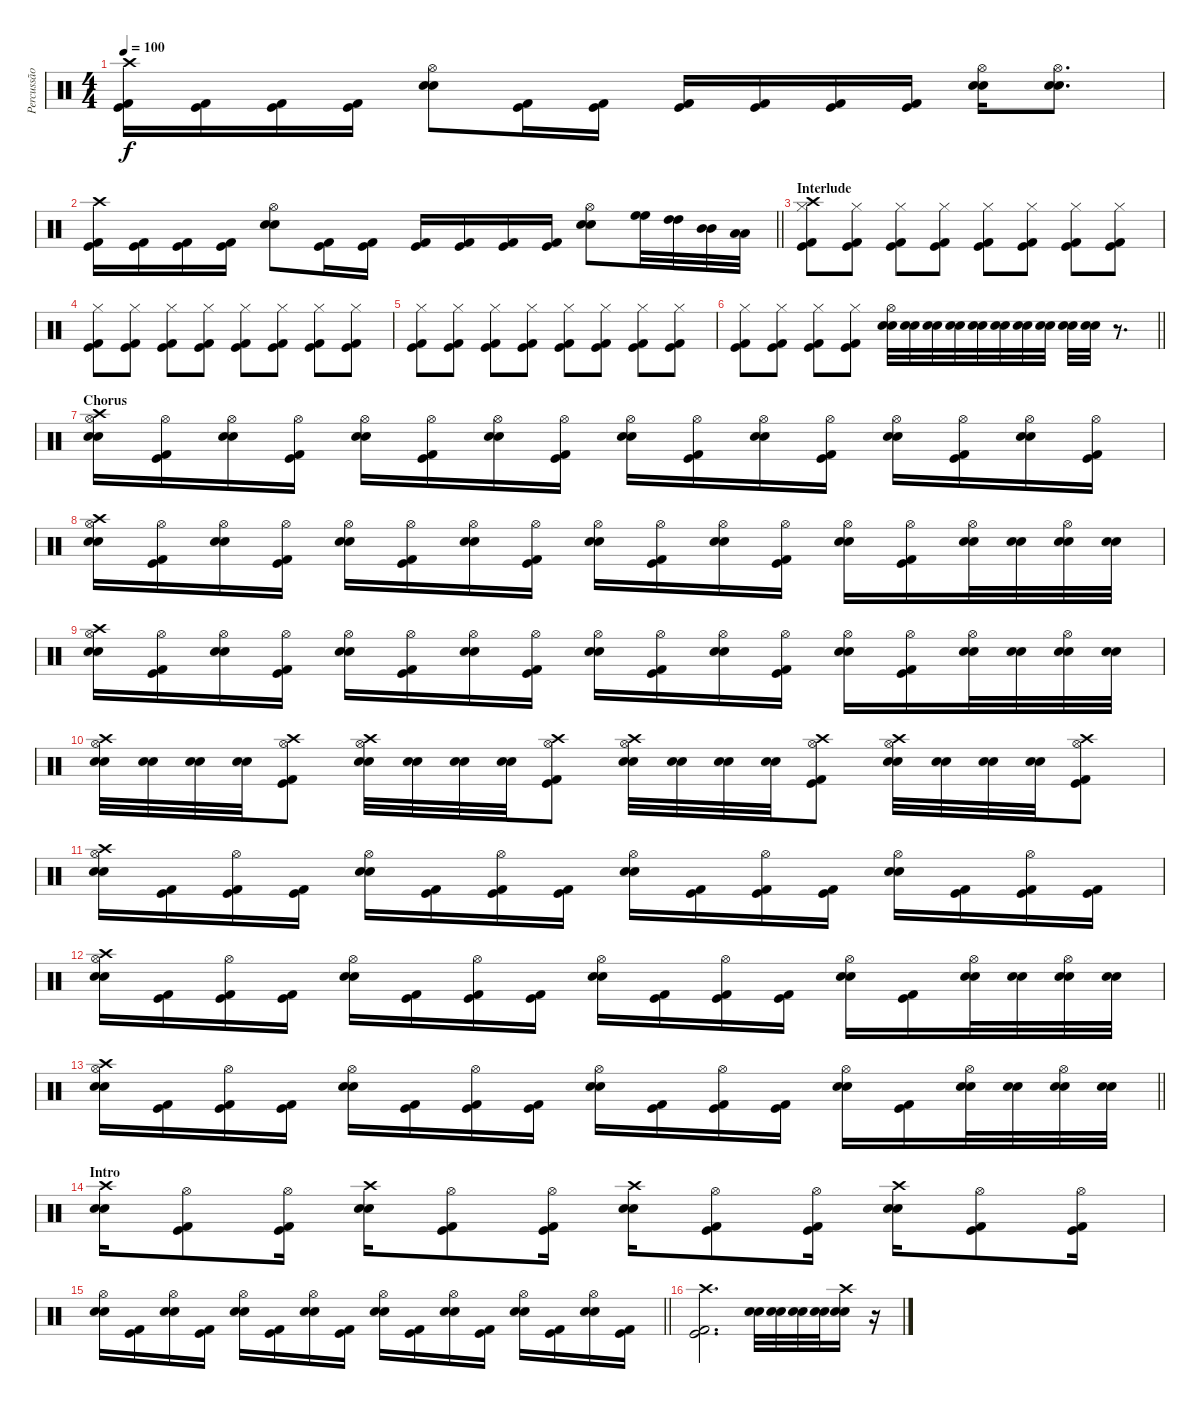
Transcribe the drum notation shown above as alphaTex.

\track ("Percussão" "Percussão") {instrument percussion}
\staff {score}
\articulation defaults
\ts (4 4)
\tempo 100
\clef neutral
\ks c
("Crash high (hit)" "Kick (hit) 2" "Kick (hit)").16{dy f} ("Kick (hit) 2" "Kick (hit)").16 ("Kick (hit) 2" "Kick (hit)").16 ("Kick (hit) 2" "Kick (hit)").16 ("Hi-Hat (open)" "Electric Snare (hit)" "Snare (hit) 2").8 ("Kick (hit) 2" "Kick (hit)").16 ("Kick (hit) 2" "Kick (hit)").16 ("Kick (hit) 2" "Kick (hit)").16 ("Kick (hit) 2" "Kick (hit)").16 ("Kick (hit) 2" "Kick (hit)").16 ("Kick (hit) 2" "Kick (hit)").16 ("Hi-Hat (open)" "Electric Snare (hit)" "Snare (hit) 2").16 ("Hi-Hat (open)" "Electric Snare (hit)" "Snare (hit) 2").8{d} |
\barLineRight lightlight
("Crash high (hit)" "Kick (hit) 2" "Kick (hit)").16 ("Kick (hit) 2" "Kick (hit)").16 ("Kick (hit) 2" "Kick (hit)").16 ("Kick (hit) 2" "Kick (hit)").16 ("Hi-Hat (open)" "Electric Snare (hit)" "Snare (hit) 2").8 ("Kick (hit) 2" "Kick (hit)").16 ("Kick (hit) 2" "Kick (hit)").16 ("Kick (hit) 2" "Kick (hit)").16 ("Kick (hit) 2" "Kick (hit)").16 ("Kick (hit) 2" "Kick (hit)").16 ("Kick (hit) 2" "Kick (hit)").16 ("Hi-Hat (open)" "Electric Snare (hit)" "Snare (hit) 2").8 ("High Floor Tom (hit)" "High Floor Tom (hit)").32 ("High Tom (hit)" "High Tom (hit)").32 ("Mid Tom (hit)" "Mid Tom (hit)").32 ("Low Tom (hit)" "Low Tom (hit)").32 |
\section ("" "Interlude")
("Crash high (hit)" "Hi-Hat (closed)" "Kick (hit) 2" "Kick (hit)").8 ("Hi-Hat (closed)" "Kick (hit) 2" "Kick (hit)").8 ("Hi-Hat (closed)" "Kick (hit) 2" "Kick (hit)").8 ("Hi-Hat (closed)" "Kick (hit) 2" "Kick (hit)").8 ("Hi-Hat (closed)" "Kick (hit) 2" "Kick (hit)").8 ("Hi-Hat (closed)" "Kick (hit) 2" "Kick (hit)").8 ("Hi-Hat (closed)" "Kick (hit) 2" "Kick (hit)").8 ("Hi-Hat (closed)" "Kick (hit) 2" "Kick (hit)").8 |
("Hi-Hat (closed)" "Kick (hit) 2" "Kick (hit)").8 ("Hi-Hat (closed)" "Kick (hit) 2" "Kick (hit)").8 ("Hi-Hat (closed)" "Kick (hit) 2" "Kick (hit)").8 ("Hi-Hat (closed)" "Kick (hit) 2" "Kick (hit)").8 ("Hi-Hat (closed)" "Kick (hit) 2" "Kick (hit)").8 ("Hi-Hat (closed)" "Kick (hit) 2" "Kick (hit)").8 ("Hi-Hat (closed)" "Kick (hit) 2" "Kick (hit)").8 ("Hi-Hat (closed)" "Kick (hit) 2" "Kick (hit)").8 |
("Hi-Hat (closed)" "Kick (hit) 2" "Kick (hit)").8 ("Hi-Hat (closed)" "Kick (hit) 2" "Kick (hit)").8 ("Hi-Hat (closed)" "Kick (hit) 2" "Kick (hit)").8 ("Hi-Hat (closed)" "Kick (hit) 2" "Kick (hit)").8 ("Hi-Hat (closed)" "Kick (hit) 2" "Kick (hit)").8 ("Hi-Hat (closed)" "Kick (hit) 2" "Kick (hit)").8 ("Hi-Hat (closed)" "Kick (hit) 2" "Kick (hit)").8 ("Hi-Hat (closed)" "Kick (hit) 2" "Kick (hit)").8 |
\barLineRight lightlight
("Hi-Hat (closed)" "Kick (hit) 2" "Kick (hit)").8 ("Hi-Hat (closed)" "Kick (hit) 2" "Kick (hit)").8 ("Hi-Hat (closed)" "Kick (hit) 2" "Kick (hit)").8 ("Hi-Hat (closed)" "Kick (hit) 2" "Kick (hit)").8 ("Hi-Hat (open)" "Electric Snare (hit)" "Snare (hit) 2").32 ("Electric Snare (hit)" "Snare (hit) 2").32 ("Electric Snare (hit)" "Snare (hit) 2").32 ("Electric Snare (hit)" "Snare (hit) 2").32 ("Electric Snare (hit)" "Snare (hit) 2").32 ("Electric Snare (hit)" "Snare (hit) 2").32 ("Electric Snare (hit)" "Snare (hit) 2").32 ("Electric Snare (hit)" "Snare (hit) 2").32 ("Electric Snare (hit)" "Snare (hit) 2").32 ("Electric Snare (hit)" "Snare (hit) 2").32 r.8{d} |
\section ("" "Chorus")
("Crash high (hit)" "Hi-Hat (open)" "Electric Snare (hit)" "Snare (hit) 2").16 ("Hi-Hat (open)" "Kick (hit) 2" "Kick (hit)").16 ("Hi-Hat (open)" "Electric Snare (hit)" "Snare (hit) 2").16 ("Hi-Hat (open)" "Kick (hit) 2" "Kick (hit)").16 ("Hi-Hat (open)" "Electric Snare (hit)" "Snare (hit) 2").16 ("Hi-Hat (open)" "Kick (hit) 2" "Kick (hit)").16 ("Hi-Hat (open)" "Electric Snare (hit)" "Snare (hit) 2").16 ("Hi-Hat (open)" "Kick (hit) 2" "Kick (hit)").16 ("Hi-Hat (open)" "Electric Snare (hit)" "Snare (hit) 2").16 ("Hi-Hat (open)" "Kick (hit) 2" "Kick (hit)").16 ("Hi-Hat (open)" "Electric Snare (hit)" "Snare (hit) 2").16 ("Hi-Hat (open)" "Kick (hit) 2" "Kick (hit)").16 ("Hi-Hat (open)" "Electric Snare (hit)" "Snare (hit) 2").16 ("Hi-Hat (open)" "Kick (hit) 2" "Kick (hit)").16 ("Hi-Hat (open)" "Electric Snare (hit)" "Snare (hit) 2").16 ("Hi-Hat (open)" "Kick (hit) 2" "Kick (hit)").16 |
("Crash high (hit)" "Hi-Hat (open)" "Electric Snare (hit)" "Snare (hit) 2").16 ("Hi-Hat (open)" "Kick (hit) 2" "Kick (hit)").16 ("Hi-Hat (open)" "Electric Snare (hit)" "Snare (hit) 2").16 ("Hi-Hat (open)" "Kick (hit) 2" "Kick (hit)").16 ("Hi-Hat (open)" "Electric Snare (hit)" "Snare (hit) 2").16 ("Hi-Hat (open)" "Kick (hit) 2" "Kick (hit)").16 ("Hi-Hat (open)" "Electric Snare (hit)" "Snare (hit) 2").16 ("Hi-Hat (open)" "Kick (hit) 2" "Kick (hit)").16 ("Hi-Hat (open)" "Electric Snare (hit)" "Snare (hit) 2").16 ("Hi-Hat (open)" "Kick (hit) 2" "Kick (hit)").16 ("Hi-Hat (open)" "Electric Snare (hit)" "Snare (hit) 2").16 ("Hi-Hat (open)" "Kick (hit) 2" "Kick (hit)").16 ("Hi-Hat (open)" "Electric Snare (hit)" "Snare (hit) 2").16 ("Hi-Hat (open)" "Kick (hit) 2" "Kick (hit)").16 ("Hi-Hat (open)" "Electric Snare (hit)" "Snare (hit) 2").32 ("Electric Snare (hit)" "Snare (hit) 2").32 ("Hi-Hat (open)" "Electric Snare (hit)" "Snare (hit) 2").32 ("Electric Snare (hit)" "Snare (hit) 2").32 |
("Crash high (hit)" "Hi-Hat (open)" "Electric Snare (hit)" "Snare (hit) 2").16 ("Hi-Hat (open)" "Kick (hit) 2" "Kick (hit)").16 ("Hi-Hat (open)" "Electric Snare (hit)" "Snare (hit) 2").16 ("Hi-Hat (open)" "Kick (hit) 2" "Kick (hit)").16 ("Hi-Hat (open)" "Electric Snare (hit)" "Snare (hit) 2").16 ("Hi-Hat (open)" "Kick (hit) 2" "Kick (hit)").16 ("Hi-Hat (open)" "Electric Snare (hit)" "Snare (hit) 2").16 ("Hi-Hat (open)" "Kick (hit) 2" "Kick (hit)").16 ("Hi-Hat (open)" "Electric Snare (hit)" "Snare (hit) 2").16 ("Hi-Hat (open)" "Kick (hit) 2" "Kick (hit)").16 ("Hi-Hat (open)" "Electric Snare (hit)" "Snare (hit) 2").16 ("Hi-Hat (open)" "Kick (hit) 2" "Kick (hit)").16 ("Hi-Hat (open)" "Electric Snare (hit)" "Snare (hit) 2").16 ("Hi-Hat (open)" "Kick (hit) 2" "Kick (hit)").16 ("Hi-Hat (open)" "Electric Snare (hit)" "Snare (hit) 2").32 ("Electric Snare (hit)" "Snare (hit) 2").32 ("Hi-Hat (open)" "Electric Snare (hit)" "Snare (hit) 2").32 ("Electric Snare (hit)" "Snare (hit) 2").32 |
("Crash high (hit)" "Hi-Hat (open)" "Electric Snare (hit)" "Snare (hit) 2").32 ("Electric Snare (hit)" "Snare (hit) 2").32 ("Electric Snare (hit)" "Snare (hit) 2").32 ("Electric Snare (hit)" "Snare (hit) 2").32 ("Crash high (hit)" "Hi-Hat (open)" "Kick (hit) 2" "Kick (hit)").8 ("Crash high (hit)" "Hi-Hat (open)" "Electric Snare (hit)" "Snare (hit) 2").32 ("Electric Snare (hit)" "Snare (hit) 2").32 ("Electric Snare (hit)" "Snare (hit) 2").32 ("Electric Snare (hit)" "Snare (hit) 2").32 ("Crash high (hit)" "Hi-Hat (open)" "Kick (hit) 2" "Kick (hit)").8 ("Crash high (hit)" "Hi-Hat (open)" "Electric Snare (hit)" "Snare (hit) 2").32 ("Electric Snare (hit)" "Snare (hit) 2").32 ("Electric Snare (hit)" "Snare (hit) 2").32 ("Electric Snare (hit)" "Snare (hit) 2").32 ("Crash high (hit)" "Hi-Hat (open)" "Kick (hit) 2" "Kick (hit)").8 ("Crash high (hit)" "Hi-Hat (open)" "Electric Snare (hit)" "Snare (hit) 2").32 ("Electric Snare (hit)" "Snare (hit) 2").32 ("Electric Snare (hit)" "Snare (hit) 2").32 ("Electric Snare (hit)" "Snare (hit) 2").32 ("Crash high (hit)" "Hi-Hat (open)" "Kick (hit) 2" "Kick (hit)").8 |
("Crash high (hit)" "Hi-Hat (open)" "Electric Snare (hit)" "Snare (hit) 2").16 ("Kick (hit) 2" "Kick (hit)").16 ("Hi-Hat (open)" "Kick (hit) 2" "Kick (hit)").16 ("Kick (hit) 2" "Kick (hit)").16 ("Hi-Hat (open)" "Electric Snare (hit)" "Snare (hit) 2").16 ("Kick (hit) 2" "Kick (hit)").16 ("Hi-Hat (open)" "Kick (hit) 2" "Kick (hit)").16 ("Kick (hit) 2" "Kick (hit)").16 ("Hi-Hat (open)" "Electric Snare (hit)" "Snare (hit) 2").16 ("Kick (hit) 2" "Kick (hit)").16 ("Hi-Hat (open)" "Kick (hit) 2" "Kick (hit)").16 ("Kick (hit) 2" "Kick (hit)").16 ("Hi-Hat (open)" "Electric Snare (hit)" "Snare (hit) 2").16 ("Kick (hit) 2" "Kick (hit)").16 ("Hi-Hat (open)" "Kick (hit) 2" "Kick (hit)").16 ("Kick (hit) 2" "Kick (hit)").16 |
("Crash high (hit)" "Hi-Hat (open)" "Electric Snare (hit)" "Snare (hit) 2").16 ("Kick (hit) 2" "Kick (hit)").16 ("Hi-Hat (open)" "Kick (hit) 2" "Kick (hit)").16 ("Kick (hit) 2" "Kick (hit)").16 ("Hi-Hat (open)" "Electric Snare (hit)" "Snare (hit) 2").16 ("Kick (hit) 2" "Kick (hit)").16 ("Hi-Hat (open)" "Kick (hit) 2" "Kick (hit)").16 ("Kick (hit) 2" "Kick (hit)").16 ("Hi-Hat (open)" "Electric Snare (hit)" "Snare (hit) 2").16 ("Kick (hit) 2" "Kick (hit)").16 ("Hi-Hat (open)" "Kick (hit) 2" "Kick (hit)").16 ("Kick (hit) 2" "Kick (hit)").16 ("Hi-Hat (open)" "Electric Snare (hit)" "Snare (hit) 2").16 ("Kick (hit) 2" "Kick (hit)").16 ("Hi-Hat (open)" "Electric Snare (hit)" "Snare (hit) 2").32 ("Electric Snare (hit)" "Snare (hit) 2").32 ("Hi-Hat (open)" "Electric Snare (hit)" "Snare (hit) 2").32 ("Electric Snare (hit)" "Snare (hit) 2").32 |
\barLineRight lightlight
("Crash high (hit)" "Hi-Hat (open)" "Electric Snare (hit)" "Snare (hit) 2").16 ("Kick (hit) 2" "Kick (hit)").16 ("Hi-Hat (open)" "Kick (hit) 2" "Kick (hit)").16 ("Kick (hit) 2" "Kick (hit)").16 ("Hi-Hat (open)" "Electric Snare (hit)" "Snare (hit) 2").16 ("Kick (hit) 2" "Kick (hit)").16 ("Hi-Hat (open)" "Kick (hit) 2" "Kick (hit)").16 ("Kick (hit) 2" "Kick (hit)").16 ("Hi-Hat (open)" "Electric Snare (hit)" "Snare (hit) 2").16 ("Kick (hit) 2" "Kick (hit)").16 ("Hi-Hat (open)" "Kick (hit) 2" "Kick (hit)").16 ("Kick (hit) 2" "Kick (hit)").16 ("Hi-Hat (open)" "Electric Snare (hit)" "Snare (hit) 2").16 ("Kick (hit) 2" "Kick (hit)").16 ("Hi-Hat (open)" "Electric Snare (hit)" "Snare (hit) 2").32 ("Electric Snare (hit)" "Snare (hit) 2").32 ("Hi-Hat (open)" "Electric Snare (hit)" "Snare (hit) 2").32 ("Electric Snare (hit)" "Snare (hit) 2").32 |
\section ("" "Intro")
("Crash high (hit)" "Electric Snare (hit)" "Snare (hit) 2").16 ("Hi-Hat (open)" "Kick (hit) 2" "Kick (hit)").8 ("Hi-Hat (open)" "Kick (hit) 2" "Kick (hit)").16 ("Crash high (hit)" "Electric Snare (hit)" "Snare (hit) 2").16 ("Hi-Hat (open)" "Kick (hit) 2" "Kick (hit)").8 ("Hi-Hat (open)" "Kick (hit) 2" "Kick (hit)").16 ("Crash high (hit)" "Electric Snare (hit)" "Snare (hit) 2").16 ("Hi-Hat (open)" "Kick (hit) 2" "Kick (hit)").8 ("Hi-Hat (open)" "Kick (hit) 2" "Kick (hit)").16 ("Crash high (hit)" "Electric Snare (hit)" "Snare (hit) 2").16 ("Hi-Hat (open)" "Kick (hit) 2" "Kick (hit)").8 ("Hi-Hat (open)" "Kick (hit) 2" "Kick (hit)").16 |
\barLineRight lightlight
("Hi-Hat (open)" "Electric Snare (hit)" "Snare (hit) 2").16 ("Kick (hit) 2" "Kick (hit)").16 ("Hi-Hat (open)" "Electric Snare (hit)" "Snare (hit) 2").16 ("Kick (hit) 2" "Kick (hit)").16 ("Hi-Hat (open)" "Electric Snare (hit)" "Snare (hit) 2").16 ("Kick (hit) 2" "Kick (hit)").16 ("Hi-Hat (open)" "Electric Snare (hit)" "Snare (hit) 2").16 ("Kick (hit) 2" "Kick (hit)").16 ("Hi-Hat (open)" "Electric Snare (hit)" "Snare (hit) 2").16 ("Kick (hit) 2" "Kick (hit)").16 ("Hi-Hat (open)" "Electric Snare (hit)" "Snare (hit) 2").16 ("Kick (hit) 2" "Kick (hit)").16 ("Hi-Hat (open)" "Electric Snare (hit)" "Snare (hit) 2").16 ("Kick (hit) 2" "Kick (hit)").16 ("Hi-Hat (open)" "Electric Snare (hit)" "Snare (hit) 2").16 ("Kick (hit) 2" "Kick (hit)").16 |
("Crash high (hit)" "Kick (hit) 2" "Kick (hit)").2{d} ("Electric Snare (hit)" "Snare (hit) 2").32 ("Electric Snare (hit)" "Snare (hit) 2").32 ("Electric Snare (hit)" "Snare (hit) 2").32 ("Electric Snare (hit)" "Snare (hit) 2").32 ("Crash high (hit)" "Electric Snare (hit)" "Snare (hit) 2").16 r.16
